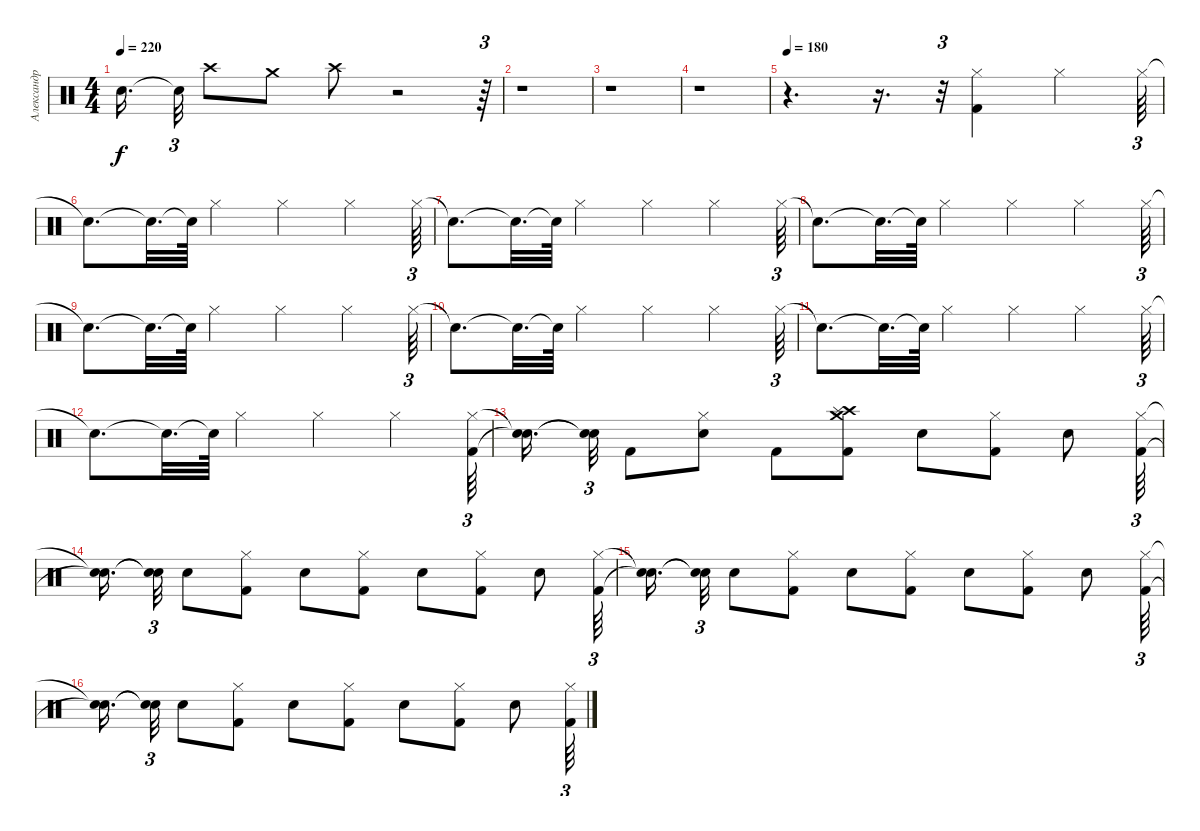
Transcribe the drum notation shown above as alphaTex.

\track ("Александр Карпухин" "Александр ") {instrument percussion}
\staff {score}
\articulation defaults
\ts (4 4)
\tempo 220
\clef neutral
\ks c "Snare (hit)"{t}.16{d dy f beam splitsecondary} "Snare (hit)"{t}.32{tu (3 2)} "Crash high (hit)".8 "Crash medium (hit)".8 "Crash high (hit)".8
r.2 r.64{tu (3 2)} |
r.1 |
r.1 |
r.1 |
\tempo 180
r.4{d} r.16{d} r.32{tu (3 2)} ("Hi-Hat (closed)" "Kick (hit) 2").4 "Hi-Hat (closed)".4 "Hi-Hat (closed)".64{tu (3 2)} |
"Snare (hit)"{t}.8{d} "Snare (hit)"{t}.32{d} "Snare (hit)"{t}.64 "Hi-Hat (closed)".4 "Hi-Hat (closed)".4 "Hi-Hat (closed)".4 "Hi-Hat (closed)".64{tu (3 2)} |
"Snare (hit)"{t}.8{d} "Snare (hit)"{t}.32{d} "Snare (hit)"{t}.64 "Hi-Hat (closed)".4 "Hi-Hat (closed)".4 "Hi-Hat (closed)".4 "Hi-Hat (closed)".64{tu (3 2)} |
"Snare (hit)"{t}.8{d} "Snare (hit)"{t}.32{d} "Snare (hit)"{t}.64 "Hi-Hat (closed)".4 "Hi-Hat (closed)".4 "Hi-Hat (closed)".4 "Hi-Hat (closed)".64{tu (3 2)} |
"Snare (hit)"{t}.8{d} "Snare (hit)"{t}.32{d} "Snare (hit)"{t}.64 "Hi-Hat (closed)".4 "Hi-Hat (closed)".4 "Hi-Hat (closed)".4 "Hi-Hat (closed)".64{tu (3 2)} |
"Snare (hit)"{t}.8{d} "Snare (hit)"{t}.32{d} "Snare (hit)"{t}.64 "Hi-Hat (closed)".4 "Hi-Hat (closed)".4 "Hi-Hat (closed)".4 "Hi-Hat (closed)".64{tu (3 2)} |
"Snare (hit)"{t}.8{d} "Snare (hit)"{t}.32{d} "Snare (hit)"{t}.64 "Hi-Hat (closed)".4 "Hi-Hat (closed)".4 "Hi-Hat (closed)".4 "Hi-Hat (closed)".64{tu (3 2)} |
"Snare (hit)"{t}.8{d} "Snare (hit)"{t}.32{d} "Snare (hit)"{t}.64 "Hi-Hat (closed)".4 "Hi-Hat (closed)".4 "Hi-Hat (closed)".4 ("Hi-Hat (closed)" "Kick (hit) 2").64{tu (3 2)} |
("Snare (hit)"{t} "Snare (hit)"{t}).16{d beam splitsecondary} ("Snare (hit)"{t} "Snare (hit)"{t}).32{tu (3 2)} "Kick (hit) 2".8 ("Hi-Hat (closed)" "Snare (hit) 2").8 "Kick (hit) 2".8 ("Crash high (hit)" "Crash medium (hit)" "Splash (hit)" "Kick (hit) 2").8 "Snare (hit) 2".8 ("Hi-Hat (closed)" "Kick (hit) 2").8 "Snare (hit) 2".8 ("Hi-Hat (closed)" "Kick (hit) 2").64{tu (3 2)} |
("Snare (hit)"{t} "Snare (hit)"{t}).16{d beam splitsecondary} ("Snare (hit)"{t} "Snare (hit)"{t}).32{tu (3 2)} "Snare (hit) 2".8 ("Hi-Hat (closed)" "Kick (hit) 2").8 "Snare (hit) 2".8 ("Hi-Hat (closed)" "Kick (hit) 2").8 "Snare (hit) 2".8 ("Hi-Hat (closed)" "Kick (hit) 2").8 "Snare (hit) 2".8 ("Hi-Hat (closed)" "Kick (hit) 2").64{tu (3 2)} |
("Snare (hit)"{t} "Snare (hit)"{t}).16{d beam splitsecondary} ("Snare (hit)"{t} "Snare (hit)"{t}).32{tu (3 2)} "Snare (hit) 2".8 ("Hi-Hat (closed)" "Kick (hit) 2").8 "Snare (hit) 2".8 ("Hi-Hat (closed)" "Kick (hit) 2").8 "Snare (hit) 2".8 ("Hi-Hat (closed)" "Kick (hit) 2").8 "Snare (hit) 2".8 ("Hi-Hat (closed)" "Kick (hit) 2").64{tu (3 2)} |
("Snare (hit)"{t} "Snare (hit)"{t}).16{d beam splitsecondary} ("Snare (hit)"{t} "Snare (hit)"{t}).32{tu (3 2)} "Snare (hit) 2".8 ("Hi-Hat (closed)" "Kick (hit) 2").8 "Snare (hit) 2".8 ("Hi-Hat (closed)" "Kick (hit) 2").8 "Snare (hit) 2".8 ("Hi-Hat (closed)" "Kick (hit) 2").8 "Snare (hit) 2".8 ("Hi-Hat (closed)" "Kick (hit) 2").64{tu (3 2)}
